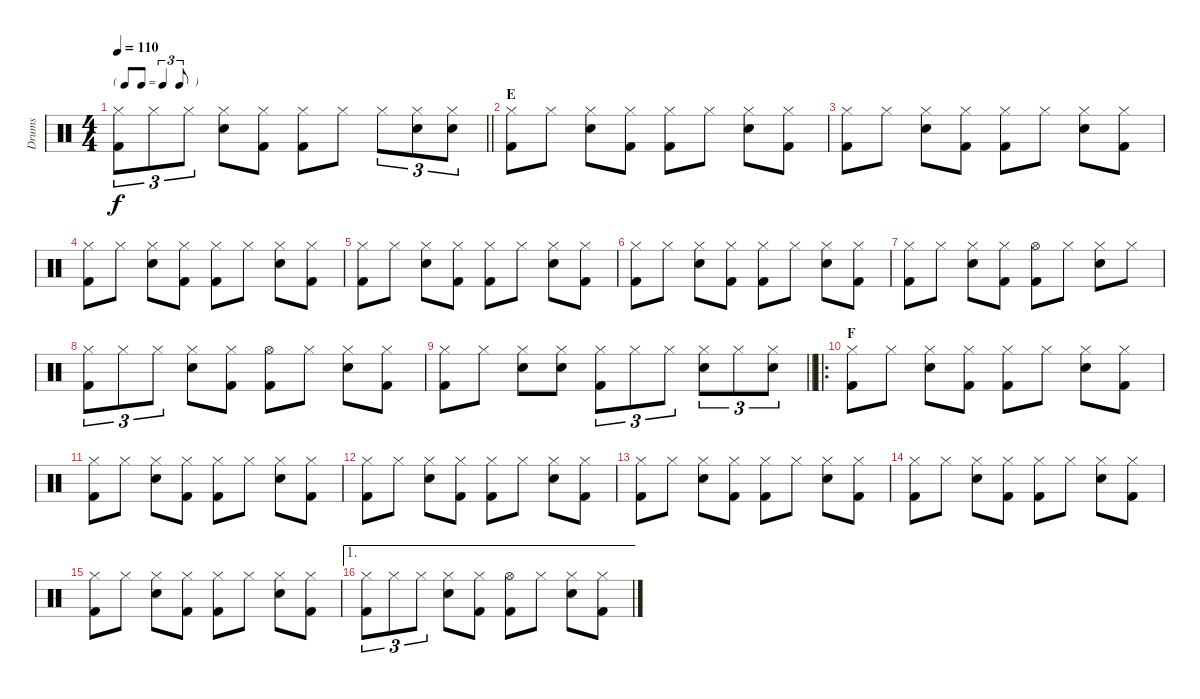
\track ("Drums" "Drums") {instrument percussion}
\staff {score}
\articulation defaults
\ts (4 4)
\tf triplet8th
\tempo 110
\clef neutral
\barLineRight lightlight
\ks c
("Hi-Hat (closed)" "Kick (hit) 2").8{tu (3 2) dy f} "Hi-Hat (closed)".8{tu (3 2)} "Hi-Hat (closed)".8{tu (3 2)} ("Hi-Hat (closed)" "Snare (hit) 2").8 ("Hi-Hat (closed)" "Kick (hit) 2").8 ("Hi-Hat (closed)" "Kick (hit) 2").8 "Hi-Hat (closed)".8 "Hi-Hat (closed)".8{tu (3 2)} ("Hi-Hat (closed)" "Snare (hit) 2").8{tu (3 2)} ("Hi-Hat (closed)" "Snare (hit) 2").8{tu (3 2)} |
\section ("" "E")
("Hi-Hat (closed)" "Kick (hit) 2").8 "Hi-Hat (closed)".8 ("Hi-Hat (closed)" "Snare (hit) 2").8 ("Hi-Hat (closed)" "Kick (hit) 2").8 ("Hi-Hat (closed)" "Kick (hit) 2").8 "Hi-Hat (closed)".8 ("Hi-Hat (closed)" "Snare (hit) 2").8 ("Hi-Hat (closed)" "Kick (hit) 2").8 |
("Hi-Hat (closed)" "Kick (hit) 2").8 "Hi-Hat (closed)".8 ("Hi-Hat (closed)" "Snare (hit) 2").8 ("Hi-Hat (closed)" "Kick (hit) 2").8 ("Hi-Hat (closed)" "Kick (hit) 2").8 "Hi-Hat (closed)".8 ("Hi-Hat (closed)" "Snare (hit) 2").8 ("Hi-Hat (closed)" "Kick (hit) 2").8 |
("Hi-Hat (closed)" "Kick (hit) 2").8 "Hi-Hat (closed)".8 ("Hi-Hat (closed)" "Snare (hit) 2").8 ("Hi-Hat (closed)" "Kick (hit) 2").8 ("Hi-Hat (closed)" "Kick (hit) 2").8 "Hi-Hat (closed)".8 ("Hi-Hat (closed)" "Snare (hit) 2").8 ("Hi-Hat (closed)" "Kick (hit) 2").8 |
("Hi-Hat (closed)" "Kick (hit) 2").8 "Hi-Hat (closed)".8 ("Hi-Hat (closed)" "Snare (hit) 2").8 ("Hi-Hat (closed)" "Kick (hit) 2").8 ("Hi-Hat (closed)" "Kick (hit) 2").8 "Hi-Hat (closed)".8 ("Hi-Hat (closed)" "Snare (hit) 2").8 ("Hi-Hat (closed)" "Kick (hit) 2").8 |
("Hi-Hat (closed)" "Kick (hit) 2").8 "Hi-Hat (closed)".8 ("Hi-Hat (closed)" "Snare (hit) 2").8 ("Hi-Hat (closed)" "Kick (hit) 2").8 ("Hi-Hat (closed)" "Kick (hit) 2").8 "Hi-Hat (closed)".8 ("Hi-Hat (closed)" "Snare (hit) 2").8 ("Hi-Hat (closed)" "Kick (hit) 2").8 |
("Hi-Hat (closed)" "Kick (hit) 2").8 "Hi-Hat (closed)".8 ("Hi-Hat (closed)" "Snare (hit) 2").8 ("Hi-Hat (closed)" "Kick (hit) 2").8 ("Hi-Hat (open)" "Kick (hit) 2").8 "Hi-Hat (closed)".8 ("Hi-Hat (closed)" "Snare (hit) 2").8 "Hi-Hat (closed)".8 |
("Hi-Hat (closed)" "Kick (hit) 2").8{tu (3 2)} "Hi-Hat (closed)".8{tu (3 2)} "Hi-Hat (closed)".8{tu (3 2)} ("Hi-Hat (closed)" "Snare (hit) 2").8 ("Hi-Hat (closed)" "Kick (hit) 2").8 ("Hi-Hat (open)" "Kick (hit) 2").8 "Hi-Hat (closed)".8 ("Hi-Hat (closed)" "Snare (hit) 2").8 ("Hi-Hat (closed)" "Kick (hit) 2").8 |
\barLineRight lightlight
("Hi-Hat (closed)" "Kick (hit) 2").8 "Hi-Hat (closed)".8 ("Hi-Hat (closed)" "Snare (hit) 2").8 ("Hi-Hat (closed)" "Snare (hit) 2").8 ("Hi-Hat (closed)" "Kick (hit) 2").8{tu (3 2)} "Hi-Hat (closed)".8{tu (3 2)} "Hi-Hat (closed)".8{tu (3 2)} ("Hi-Hat (closed)" "Snare (hit) 2").8{tu (3 2)} "Hi-Hat (closed)".8{tu (3 2)} ("Hi-Hat (closed)" "Snare (hit) 2").8{tu (3 2)} |
\ro
\section ("" "F")
("Hi-Hat (closed)" "Kick (hit) 2").8 "Hi-Hat (closed)".8 ("Hi-Hat (closed)" "Snare (hit) 2").8 ("Hi-Hat (closed)" "Kick (hit) 2").8 ("Hi-Hat (closed)" "Kick (hit) 2").8 "Hi-Hat (closed)".8 ("Hi-Hat (closed)" "Snare (hit) 2").8 ("Hi-Hat (closed)" "Kick (hit) 2").8 |
("Hi-Hat (closed)" "Kick (hit) 2").8 "Hi-Hat (closed)".8 ("Hi-Hat (closed)" "Snare (hit) 2").8 ("Hi-Hat (closed)" "Kick (hit) 2").8 ("Hi-Hat (closed)" "Kick (hit) 2").8 "Hi-Hat (closed)".8 ("Hi-Hat (closed)" "Snare (hit) 2").8 ("Hi-Hat (closed)" "Kick (hit) 2").8 |
("Hi-Hat (closed)" "Kick (hit) 2").8 "Hi-Hat (closed)".8 ("Hi-Hat (closed)" "Snare (hit) 2").8 ("Hi-Hat (closed)" "Kick (hit) 2").8 ("Hi-Hat (closed)" "Kick (hit) 2").8 "Hi-Hat (closed)".8 ("Hi-Hat (closed)" "Snare (hit) 2").8 ("Hi-Hat (closed)" "Kick (hit) 2").8 |
("Hi-Hat (closed)" "Kick (hit) 2").8 "Hi-Hat (closed)".8 ("Hi-Hat (closed)" "Snare (hit) 2").8 ("Hi-Hat (closed)" "Kick (hit) 2").8 ("Hi-Hat (closed)" "Kick (hit) 2").8 "Hi-Hat (closed)".8 ("Hi-Hat (closed)" "Snare (hit) 2").8 ("Hi-Hat (closed)" "Kick (hit) 2").8 |
("Hi-Hat (closed)" "Kick (hit) 2").8 "Hi-Hat (closed)".8 ("Hi-Hat (closed)" "Snare (hit) 2").8 ("Hi-Hat (closed)" "Kick (hit) 2").8 ("Hi-Hat (closed)" "Kick (hit) 2").8 "Hi-Hat (closed)".8 ("Hi-Hat (closed)" "Snare (hit) 2").8 ("Hi-Hat (closed)" "Kick (hit) 2").8 |
("Hi-Hat (closed)" "Kick (hit) 2").8 "Hi-Hat (closed)".8 ("Hi-Hat (closed)" "Snare (hit) 2").8 ("Hi-Hat (closed)" "Kick (hit) 2").8 ("Hi-Hat (closed)" "Kick (hit) 2").8 "Hi-Hat (closed)".8 ("Hi-Hat (closed)" "Snare (hit) 2").8 ("Hi-Hat (closed)" "Kick (hit) 2").8 |
\ae 1
("Hi-Hat (closed)" "Kick (hit) 2").8{tu (3 2)} "Hi-Hat (closed)".8{tu (3 2)} "Hi-Hat (closed)".8{tu (3 2)} ("Hi-Hat (closed)" "Snare (hit) 2").8 ("Hi-Hat (closed)" "Kick (hit) 2").8 ("Hi-Hat (open)" "Kick (hit) 2").8 "Hi-Hat (closed)".8 ("Hi-Hat (closed)" "Snare (hit) 2").8 ("Hi-Hat (closed)" "Kick (hit) 2").8
